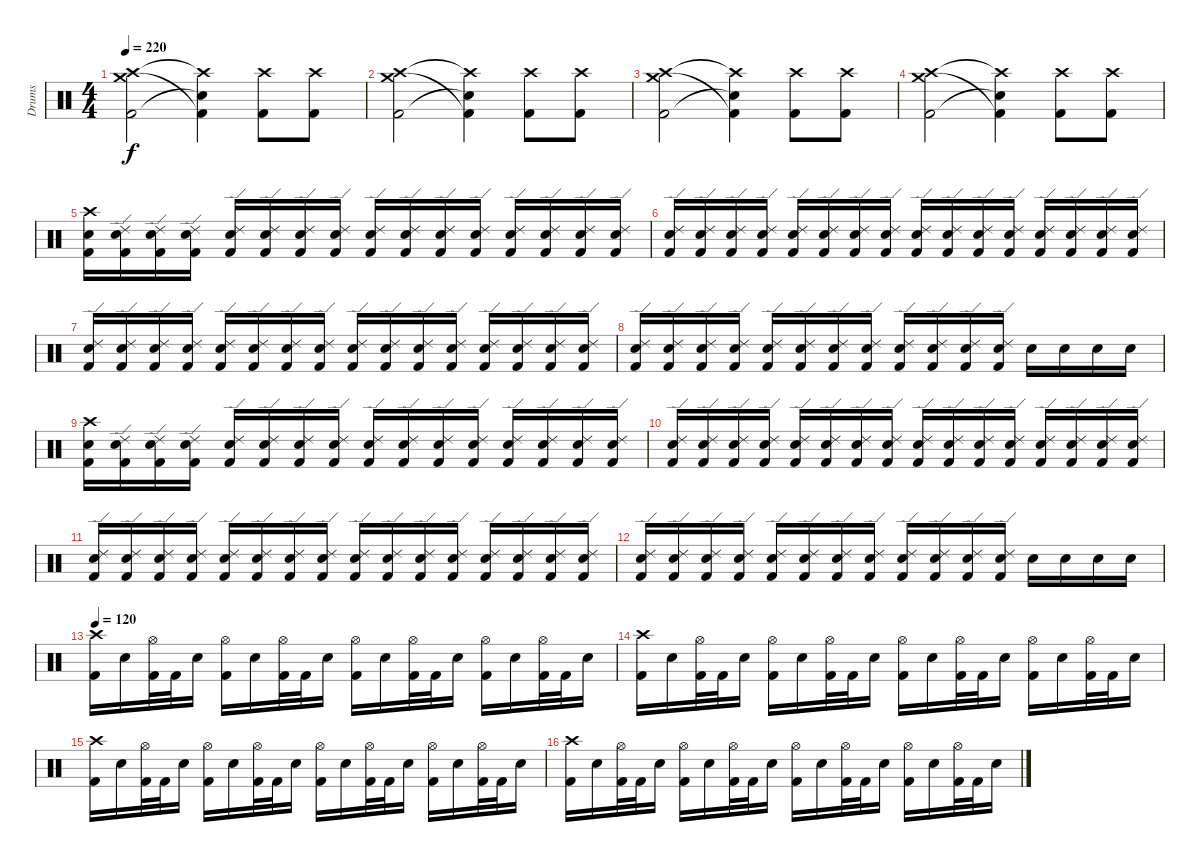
\track ("Drums" "Drums") {instrument percussion}
\staff {score}
\articulation defaults
\ts (4 4)
\tempo 220
\clef neutral
\ks c
("Crash high (hit)" "Crash medium (hit)" "Kick (hit) 2").2{dy f} ("Crash high (hit)"{t} "Kick (hit) 2"{t} "Snare (hit)"{t}).4 ("Crash high (hit)" "Kick (hit) 2").8 ("Crash high (hit)" "Kick (hit) 2").8 |
("Crash high (hit)" "Crash medium (hit)" "Kick (hit) 2").2 ("Crash high (hit)"{t} "Kick (hit) 2"{t} "Snare (hit)"{t}).4 ("Crash high (hit)" "Kick (hit) 2").8 ("Crash high (hit)" "Kick (hit) 2").8 |
("Crash high (hit)" "Crash medium (hit)" "Kick (hit) 2").2 ("Crash high (hit)"{t} "Kick (hit) 2"{t} "Snare (hit)"{t}).4 ("Crash high (hit)" "Kick (hit) 2").8 ("Crash high (hit)" "Kick (hit) 2").8 |
("Crash high (hit)" "Crash medium (hit)" "Kick (hit) 2").2 ("Crash high (hit)"{t} "Kick (hit) 2"{t} "Snare (hit)"{t}).4 ("Crash high (hit)" "Kick (hit) 2").8 ("Crash high (hit)" "Kick (hit) 2").8 |
("Crash high (hit)" "Electric Snare (hit)" "Kick (hit) 2").16 ("Ride (edge) 2" "Electric Snare (hit)" "Kick (hit) 2").16 ("Ride (edge) 2" "Electric Snare (hit)" "Kick (hit) 2").16 ("Ride (edge) 2" "Electric Snare (hit)" "Kick (hit) 2").16 ("Ride (edge) 2" "Electric Snare (hit)" "Kick (hit) 2").16 ("Ride (edge) 2" "Electric Snare (hit)" "Kick (hit) 2").16 ("Ride (edge) 2" "Electric Snare (hit)" "Kick (hit) 2").16 ("Ride (edge) 2" "Electric Snare (hit)" "Kick (hit) 2").16 ("Ride (edge) 2" "Electric Snare (hit)" "Kick (hit) 2").16 ("Ride (edge) 2" "Electric Snare (hit)" "Kick (hit) 2").16 ("Ride (edge) 2" "Electric Snare (hit)" "Kick (hit) 2").16 ("Ride (edge) 2" "Electric Snare (hit)" "Kick (hit) 2").16 ("Ride (edge) 2" "Electric Snare (hit)" "Kick (hit) 2").16 ("Ride (edge) 2" "Electric Snare (hit)" "Kick (hit) 2").16 ("Ride (edge) 2" "Electric Snare (hit)" "Kick (hit) 2").16 ("Ride (edge) 2" "Electric Snare (hit)" "Kick (hit) 2").16 |
("Ride (edge) 2" "Electric Snare (hit)" "Kick (hit) 2").16 ("Ride (edge) 2" "Electric Snare (hit)" "Kick (hit) 2").16 ("Ride (edge) 2" "Electric Snare (hit)" "Kick (hit) 2").16 ("Ride (edge) 2" "Electric Snare (hit)" "Kick (hit) 2").16 ("Ride (edge) 2" "Electric Snare (hit)" "Kick (hit) 2").16 ("Ride (edge) 2" "Electric Snare (hit)" "Kick (hit) 2").16 ("Ride (edge) 2" "Electric Snare (hit)" "Kick (hit) 2").16 ("Ride (edge) 2" "Electric Snare (hit)" "Kick (hit) 2").16 ("Ride (edge) 2" "Electric Snare (hit)" "Kick (hit) 2").16 ("Ride (edge) 2" "Electric Snare (hit)" "Kick (hit) 2").16 ("Ride (edge) 2" "Electric Snare (hit)" "Kick (hit) 2").16 ("Ride (edge) 2" "Electric Snare (hit)" "Kick (hit) 2").16 ("Ride (edge) 2" "Electric Snare (hit)" "Kick (hit) 2").16 ("Ride (edge) 2" "Electric Snare (hit)" "Kick (hit) 2").16 ("Ride (edge) 2" "Electric Snare (hit)" "Kick (hit) 2").16 ("Ride (edge) 2" "Electric Snare (hit)" "Kick (hit) 2").16 |
("Ride (edge) 2" "Electric Snare (hit)" "Kick (hit) 2").16 ("Ride (edge) 2" "Electric Snare (hit)" "Kick (hit) 2").16 ("Ride (edge) 2" "Electric Snare (hit)" "Kick (hit) 2").16 ("Ride (edge) 2" "Electric Snare (hit)" "Kick (hit) 2").16 ("Ride (edge) 2" "Electric Snare (hit)" "Kick (hit) 2").16 ("Ride (edge) 2" "Electric Snare (hit)" "Kick (hit) 2").16 ("Ride (edge) 2" "Electric Snare (hit)" "Kick (hit) 2").16 ("Ride (edge) 2" "Electric Snare (hit)" "Kick (hit) 2").16 ("Ride (edge) 2" "Electric Snare (hit)" "Kick (hit) 2").16 ("Ride (edge) 2" "Electric Snare (hit)" "Kick (hit) 2").16 ("Ride (edge) 2" "Electric Snare (hit)" "Kick (hit) 2").16 ("Ride (edge) 2" "Electric Snare (hit)" "Kick (hit) 2").16 ("Ride (edge) 2" "Electric Snare (hit)" "Kick (hit) 2").16 ("Ride (edge) 2" "Electric Snare (hit)" "Kick (hit) 2").16 ("Ride (edge) 2" "Electric Snare (hit)" "Kick (hit) 2").16 ("Ride (edge) 2" "Electric Snare (hit)" "Kick (hit) 2").16 |
("Ride (edge) 2" "Electric Snare (hit)" "Kick (hit) 2").16 ("Ride (edge) 2" "Electric Snare (hit)" "Kick (hit) 2").16 ("Ride (edge) 2" "Electric Snare (hit)" "Kick (hit) 2").16 ("Ride (edge) 2" "Electric Snare (hit)" "Kick (hit) 2").16 ("Ride (edge) 2" "Electric Snare (hit)" "Kick (hit) 2").16 ("Ride (edge) 2" "Electric Snare (hit)" "Kick (hit) 2").16 ("Ride (edge) 2" "Electric Snare (hit)" "Kick (hit) 2").16 ("Ride (edge) 2" "Electric Snare (hit)" "Kick (hit) 2").16 ("Ride (edge) 2" "Electric Snare (hit)" "Kick (hit) 2").16 ("Ride (edge) 2" "Electric Snare (hit)" "Kick (hit) 2").16 ("Ride (edge) 2" "Electric Snare (hit)" "Kick (hit) 2").16 ("Ride (edge) 2" "Electric Snare (hit)" "Kick (hit) 2").16 "Electric Snare (hit)".16 "Electric Snare (hit)".16 "Electric Snare (hit)".16 "Electric Snare (hit)".16 |
("Crash high (hit)" "Electric Snare (hit)" "Kick (hit) 2").16 ("Ride (edge) 2" "Electric Snare (hit)" "Kick (hit) 2").16 ("Ride (edge) 2" "Electric Snare (hit)" "Kick (hit) 2").16 ("Ride (edge) 2" "Electric Snare (hit)" "Kick (hit) 2").16 ("Ride (edge) 2" "Electric Snare (hit)" "Kick (hit) 2").16 ("Ride (edge) 2" "Electric Snare (hit)" "Kick (hit) 2").16 ("Ride (edge) 2" "Electric Snare (hit)" "Kick (hit) 2").16 ("Ride (edge) 2" "Electric Snare (hit)" "Kick (hit) 2").16 ("Ride (edge) 2" "Electric Snare (hit)" "Kick (hit) 2").16 ("Ride (edge) 2" "Electric Snare (hit)" "Kick (hit) 2").16 ("Ride (edge) 2" "Electric Snare (hit)" "Kick (hit) 2").16 ("Ride (edge) 2" "Electric Snare (hit)" "Kick (hit) 2").16 ("Ride (edge) 2" "Electric Snare (hit)" "Kick (hit) 2").16 ("Ride (edge) 2" "Electric Snare (hit)" "Kick (hit) 2").16 ("Ride (edge) 2" "Electric Snare (hit)" "Kick (hit) 2").16 ("Ride (edge) 2" "Electric Snare (hit)" "Kick (hit) 2").16 |
("Ride (edge) 2" "Electric Snare (hit)" "Kick (hit) 2").16 ("Ride (edge) 2" "Electric Snare (hit)" "Kick (hit) 2").16 ("Ride (edge) 2" "Electric Snare (hit)" "Kick (hit) 2").16 ("Ride (edge) 2" "Electric Snare (hit)" "Kick (hit) 2").16 ("Ride (edge) 2" "Electric Snare (hit)" "Kick (hit) 2").16 ("Ride (edge) 2" "Electric Snare (hit)" "Kick (hit) 2").16 ("Ride (edge) 2" "Electric Snare (hit)" "Kick (hit) 2").16 ("Ride (edge) 2" "Electric Snare (hit)" "Kick (hit) 2").16 ("Ride (edge) 2" "Electric Snare (hit)" "Kick (hit) 2").16 ("Ride (edge) 2" "Electric Snare (hit)" "Kick (hit) 2").16 ("Ride (edge) 2" "Electric Snare (hit)" "Kick (hit) 2").16 ("Ride (edge) 2" "Electric Snare (hit)" "Kick (hit) 2").16 ("Ride (edge) 2" "Electric Snare (hit)" "Kick (hit) 2").16 ("Ride (edge) 2" "Electric Snare (hit)" "Kick (hit) 2").16 ("Ride (edge) 2" "Electric Snare (hit)" "Kick (hit) 2").16 ("Ride (edge) 2" "Electric Snare (hit)" "Kick (hit) 2").16 |
("Ride (edge) 2" "Electric Snare (hit)" "Kick (hit) 2").16 ("Ride (edge) 2" "Electric Snare (hit)" "Kick (hit) 2").16 ("Ride (edge) 2" "Electric Snare (hit)" "Kick (hit) 2").16 ("Ride (edge) 2" "Electric Snare (hit)" "Kick (hit) 2").16 ("Ride (edge) 2" "Electric Snare (hit)" "Kick (hit) 2").16 ("Ride (edge) 2" "Electric Snare (hit)" "Kick (hit) 2").16 ("Ride (edge) 2" "Electric Snare (hit)" "Kick (hit) 2").16 ("Ride (edge) 2" "Electric Snare (hit)" "Kick (hit) 2").16 ("Ride (edge) 2" "Electric Snare (hit)" "Kick (hit) 2").16 ("Ride (edge) 2" "Electric Snare (hit)" "Kick (hit) 2").16 ("Ride (edge) 2" "Electric Snare (hit)" "Kick (hit) 2").16 ("Ride (edge) 2" "Electric Snare (hit)" "Kick (hit) 2").16 ("Ride (edge) 2" "Electric Snare (hit)" "Kick (hit) 2").16 ("Ride (edge) 2" "Electric Snare (hit)" "Kick (hit) 2").16 ("Ride (edge) 2" "Electric Snare (hit)" "Kick (hit) 2").16 ("Ride (edge) 2" "Electric Snare (hit)" "Kick (hit) 2").16 |
("Ride (edge) 2" "Electric Snare (hit)" "Kick (hit) 2").16 ("Ride (edge) 2" "Electric Snare (hit)" "Kick (hit) 2").16 ("Ride (edge) 2" "Electric Snare (hit)" "Kick (hit) 2").16 ("Ride (edge) 2" "Electric Snare (hit)" "Kick (hit) 2").16 ("Ride (edge) 2" "Electric Snare (hit)" "Kick (hit) 2").16 ("Ride (edge) 2" "Electric Snare (hit)" "Kick (hit) 2").16 ("Ride (edge) 2" "Electric Snare (hit)" "Kick (hit) 2").16 ("Ride (edge) 2" "Electric Snare (hit)" "Kick (hit) 2").16 ("Ride (edge) 2" "Electric Snare (hit)" "Kick (hit) 2").16 ("Ride (edge) 2" "Electric Snare (hit)" "Kick (hit) 2").16 ("Ride (edge) 2" "Electric Snare (hit)" "Kick (hit) 2").16 ("Ride (edge) 2" "Electric Snare (hit)" "Kick (hit) 2").16 "Electric Snare (hit)".16 "Electric Snare (hit)".16 "Electric Snare (hit)".16 "Electric Snare (hit)".16 |
\tempo 120
("Crash high (hit)" "Kick (hit) 2").16 "Electric Snare (hit)".16 ("Hi-Hat (open)" "Kick (hit) 2").32 "Kick (hit) 2".32 "Electric Snare (hit)".16 ("Hi-Hat (open)" "Kick (hit) 2").16 "Electric Snare (hit)".16 ("Hi-Hat (open)" "Kick (hit) 2").32 "Kick (hit) 2".32 "Electric Snare (hit)".16 ("Hi-Hat (open)" "Kick (hit) 2").16 "Electric Snare (hit)".16 ("Hi-Hat (open)" "Kick (hit) 2").32 "Kick (hit) 2".32 "Electric Snare (hit)".16 ("Hi-Hat (open)" "Kick (hit) 2").16 "Electric Snare (hit)".16 ("Hi-Hat (open)" "Kick (hit) 2").32 "Kick (hit) 2".32 "Electric Snare (hit)".16 |
("Crash high (hit)" "Kick (hit) 2").16 "Electric Snare (hit)".16 ("Hi-Hat (open)" "Kick (hit) 2").32 "Kick (hit) 2".32 "Electric Snare (hit)".16 ("Hi-Hat (open)" "Kick (hit) 2").16 "Electric Snare (hit)".16 ("Hi-Hat (open)" "Kick (hit) 2").32 "Kick (hit) 2".32 "Electric Snare (hit)".16 ("Hi-Hat (open)" "Kick (hit) 2").16 "Electric Snare (hit)".16 ("Hi-Hat (open)" "Kick (hit) 2").32 "Kick (hit) 2".32 "Electric Snare (hit)".16 ("Hi-Hat (open)" "Kick (hit) 2").16 "Electric Snare (hit)".16 ("Hi-Hat (open)" "Kick (hit) 2").32 "Kick (hit) 2".32 "Electric Snare (hit)".16 |
("Crash high (hit)" "Kick (hit) 2").16 "Electric Snare (hit)".16 ("Hi-Hat (open)" "Kick (hit) 2").32 "Kick (hit) 2".32 "Electric Snare (hit)".16 ("Hi-Hat (open)" "Kick (hit) 2").16 "Electric Snare (hit)".16 ("Hi-Hat (open)" "Kick (hit) 2").32 "Kick (hit) 2".32 "Electric Snare (hit)".16 ("Hi-Hat (open)" "Kick (hit) 2").16 "Electric Snare (hit)".16 ("Hi-Hat (open)" "Kick (hit) 2").32 "Kick (hit) 2".32 "Electric Snare (hit)".16 ("Hi-Hat (open)" "Kick (hit) 2").16 "Electric Snare (hit)".16 ("Hi-Hat (open)" "Kick (hit) 2").32 "Kick (hit) 2".32 "Electric Snare (hit)".16 |
("Crash high (hit)" "Kick (hit) 2").16 "Electric Snare (hit)".16 ("Hi-Hat (open)" "Kick (hit) 2").32 "Kick (hit) 2".32 "Electric Snare (hit)".16 ("Hi-Hat (open)" "Kick (hit) 2").16 "Electric Snare (hit)".16 ("Hi-Hat (open)" "Kick (hit) 2").32 "Kick (hit) 2".32 "Electric Snare (hit)".16 ("Hi-Hat (open)" "Kick (hit) 2").16 "Electric Snare (hit)".16 ("Hi-Hat (open)" "Kick (hit) 2").32 "Kick (hit) 2".32 "Electric Snare (hit)".16 ("Hi-Hat (open)" "Kick (hit) 2").16 "Electric Snare (hit)".16 ("Hi-Hat (open)" "Kick (hit) 2").32 "Kick (hit) 2".32 "Electric Snare (hit)".16
